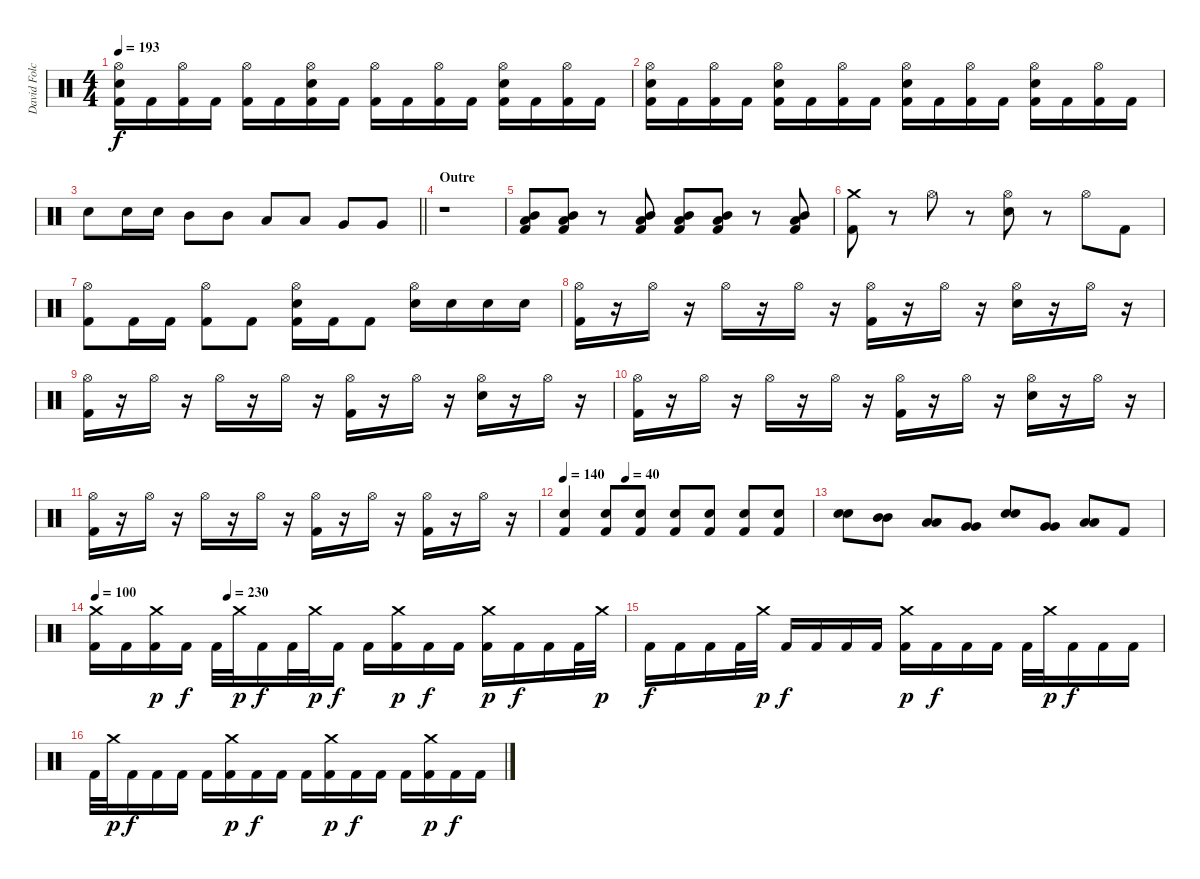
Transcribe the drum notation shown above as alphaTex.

\track ("David Folchitto (Drums)" "David Folc") {instrument percussion}
\staff {score}
\articulation defaults
\ts (4 4)
\tempo 193
\clef neutral
\ks c
("Hi-Hat (open)" "Snare (hit) 2" "Kick (hit) 2").16{dy f} "Kick (hit) 2".16 ("Hi-Hat (open)" "Kick (hit) 2").16 "Kick (hit) 2".16 ("Hi-Hat (open)" "Kick (hit) 2").16 "Kick (hit) 2".16 ("Hi-Hat (open)" "Snare (hit) 2" "Kick (hit) 2").16 "Kick (hit) 2".16 ("Hi-Hat (open)" "Kick (hit) 2").16 "Kick (hit) 2".16 ("Hi-Hat (open)" "Kick (hit) 2").16 "Kick (hit) 2".16 ("Hi-Hat (open)" "Snare (hit) 2" "Kick (hit) 2").16 "Kick (hit) 2".16 ("Hi-Hat (open)" "Kick (hit) 2").16 "Kick (hit) 2".16 |
("Hi-Hat (open)" "Snare (hit) 2" "Kick (hit) 2").16 "Kick (hit) 2".16 ("Hi-Hat (open)" "Kick (hit) 2").16 "Kick (hit) 2".16 ("Hi-Hat (open)" "Snare (hit) 2" "Kick (hit) 2").16 "Kick (hit) 2".16 ("Hi-Hat (open)" "Kick (hit) 2").16 "Kick (hit) 2".16 ("Hi-Hat (open)" "Snare (hit) 2" "Kick (hit) 2").16 "Kick (hit) 2".16 ("Hi-Hat (open)" "Kick (hit) 2").16 "Kick (hit) 2".16 ("Hi-Hat (open)" "Snare (hit) 2" "Kick (hit) 2").16 "Kick (hit) 2".16 ("Hi-Hat (open)" "Kick (hit) 2").16 "Kick (hit) 2".16 |
\barLineRight lightlight "Snare (hit) 2".8 "Snare (hit) 2".16 "Snare (hit) 2".16 "Mid Tom (hit)".8 "Mid Tom (hit)".8 "Low Tom (hit)".8 "Low Tom (hit)".8 "Very Low Tom (hit)".8 "Very Low Tom (hit)".8
|
\section ("" "Outre")
r.1 |
("Mid Tom (hit)" "Low Tom (hit)" "Kick (hit) 2").8 ("Mid Tom (hit)" "Low Tom (hit)" "Kick (hit) 2").8 r.8 ("Mid Tom (hit)" "Low Tom (hit)" "Kick (hit) 2").8 ("Mid Tom (hit)" "Low Tom (hit)" "Kick (hit) 2").8 ("Mid Tom (hit)" "Low Tom (hit)" "Kick (hit) 2").8 r.8 ("Mid Tom (hit)" "Low Tom (hit)" "Kick (hit) 2").8 |
("Crash medium (hit)" "Kick (hit) 2").8 r.8 "Hi-Hat (open)".8 r.8 ("Hi-Hat (open)" "Snare (hit) 2").8 r.8 "Hi-Hat (open)".8 "Kick (hit) 2".8 |
("Hi-Hat (open)" "Kick (hit) 2").8 "Kick (hit) 2".16 "Kick (hit) 2".16 ("Hi-Hat (open)" "Kick (hit) 2").8 "Kick (hit) 2".8 ("Hi-Hat (open)" "Snare (hit) 2" "Kick (hit) 2").16 "Kick (hit) 2".16 "Kick (hit) 2".8 ("Hi-Hat (open)" "Snare (hit) 2").16 "Snare (hit) 2".16 "Snare (hit) 2".16 "Snare (hit) 2".16 |
("Hi-Hat (open)" "Kick (hit) 2").16 r.16 "Hi-Hat (open)".16 r.16 "Hi-Hat (open)".16 r.16 "Hi-Hat (open)".16 r.16 ("Hi-Hat (open)" "Kick (hit) 2").16 r.16 "Hi-Hat (open)".16 r.16 ("Hi-Hat (open)" "Snare (hit) 2").16 r.16 "Hi-Hat (open)".16 r.16 |
("Hi-Hat (open)" "Kick (hit) 2").16 r.16 "Hi-Hat (open)".16 r.16 "Hi-Hat (open)".16 r.16 "Hi-Hat (open)".16 r.16 ("Hi-Hat (open)" "Kick (hit) 2").16 r.16 "Hi-Hat (open)".16 r.16 ("Hi-Hat (open)" "Snare (hit) 2").16 r.16 "Hi-Hat (open)".16 r.16 |
("Hi-Hat (open)" "Kick (hit) 2").16 r.16 "Hi-Hat (open)".16 r.16 "Hi-Hat (open)".16 r.16 "Hi-Hat (open)".16 r.16 ("Hi-Hat (open)" "Kick (hit) 2").16 r.16 "Hi-Hat (open)".16 r.16 ("Hi-Hat (open)" "Snare (hit) 2").16 r.16 "Hi-Hat (open)".16 r.16 |
("Hi-Hat (open)" "Kick (hit) 2").16 r.16 "Hi-Hat (open)".16 r.16 "Hi-Hat (open)".16 r.16 "Hi-Hat (open)".16 r.16 ("Hi-Hat (open)" "Kick (hit) 2").16 r.16 "Hi-Hat (open)".16 r.16 ("Hi-Hat (open)" "Kick (hit) 2").16 r.16 "Hi-Hat (open)".16 r.16 |
\tempo 140
\tempo (40 0.25)
("Snare (hit) 2" "Kick (hit) 2").4 ("Snare (hit) 2" "Kick (hit) 2").8 ("Snare (hit) 2" "Kick (hit) 2").8 ("Snare (hit) 2" "Kick (hit) 2").8 ("Snare (hit) 2" "Kick (hit) 2").8 ("Snare (hit) 2" "Kick (hit) 2").8 ("Snare (hit) 2" "Kick (hit) 2").8 |
("Snare (hit) 2" "Snare (hit) 2").8 ("Mid Tom (hit)" "Mid Tom (hit)").8 ("Low Tom (hit)" "Low Tom (hit)").8 ("Very Low Tom (hit)" "Very Low Tom (hit)").8 ("Snare (hit) 2" "Snare (hit) 2").8 ("Very Low Tom (hit)" "Very Low Tom (hit)").8 ("Low Tom (hit)" "Low Tom (hit)").8 "Kick (hit) 2".8 |
\tempo 100
\tempo (230 0.25)
("Crash medium (hit)" "Kick (hit) 2").16{volume 11} "Kick (hit) 2".16 ("Crash medium (hit)" "Kick (hit) 2").16{dy p} "Kick (hit) 2".16{dy f} "Kick (hit) 2".32 "Crash medium (hit)".32{dy p} "Kick (hit) 2".16{dy f} "Kick (hit) 2".32 "Crash medium (hit)".32{dy p} "Kick (hit) 2".16{dy f} "Kick (hit) 2".16 ("Crash medium (hit)" "Kick (hit) 2").16{dy p} "Kick (hit) 2".16{dy f} "Kick (hit) 2".16 ("Crash medium (hit)" "Kick (hit) 2").16{dy p} "Kick (hit) 2".16{dy f} "Kick (hit) 2".16 "Kick (hit) 2".32 "Crash medium (hit)".32{dy p} |
"Kick (hit) 2".16{dy f} "Kick (hit) 2".16 "Kick (hit) 2".16 "Kick (hit) 2".32 "Crash medium (hit)".32{dy p} "Kick (hit) 2".16{dy f} "Kick (hit) 2".16 "Kick (hit) 2".16 "Kick (hit) 2".16 ("Crash medium (hit)" "Kick (hit) 2").16{dy p} "Kick (hit) 2".16{dy f} "Kick (hit) 2".16 "Kick (hit) 2".16 "Kick (hit) 2".32 "Crash medium (hit)".32{dy p} "Kick (hit) 2".16{dy f} "Kick (hit) 2".16 "Kick (hit) 2".16 |
"Kick (hit) 2".32 "Crash medium (hit)".32{dy p} "Kick (hit) 2".16{dy f} "Kick (hit) 2".16 "Kick (hit) 2".16 "Kick (hit) 2".16 ("Crash medium (hit)" "Kick (hit) 2").16{dy p} "Kick (hit) 2".16{dy f} "Kick (hit) 2".16 "Kick (hit) 2".16 ("Crash medium (hit)" "Kick (hit) 2").16{dy p} "Kick (hit) 2".16{dy f} "Kick (hit) 2".16 "Kick (hit) 2".16 ("Crash medium (hit)" "Kick (hit) 2").16{dy p} "Kick (hit) 2".16{dy f} "Kick (hit) 2".16
